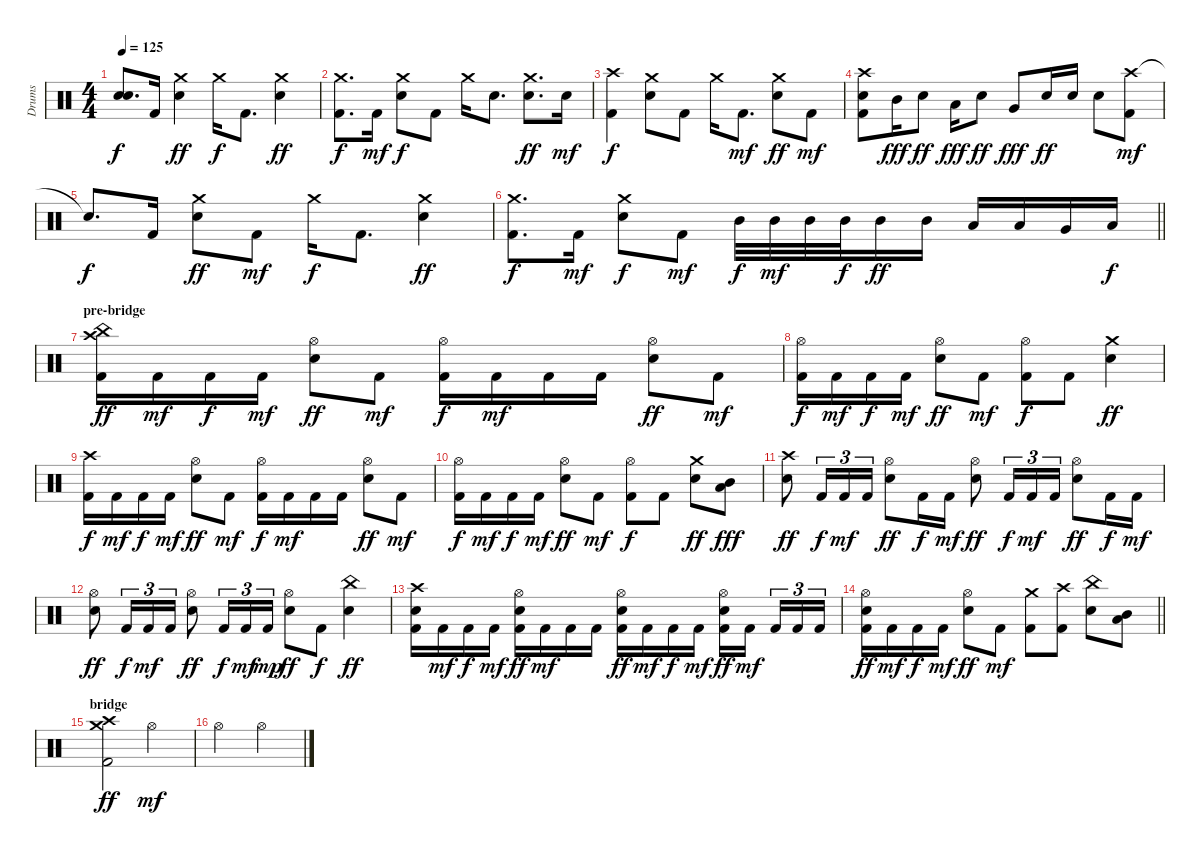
\track ("Drums" "Drums") {instrument percussion}
\staff {score}
\articulation defaults
\ts (4 4)
\tempo 125
\clef neutral
\ks c
("Snare (hit)"{t} "Snare (hit)"{t}).8{d dy f} "Kick (hit) 2".16 ("Crash medium (hit)" "Snare (hit) 2").4{dy ff} "Crash medium (hit)".16{dy f} "Kick (hit) 2".8{d} ("Crash medium (hit)" "Snare (hit) 2").4{dy ff} |
("Crash medium (hit)" "Kick (hit) 2").8{d dy f} "Kick (hit) 2".16{dy mf} ("Crash medium (hit)" "Snare (hit) 2").8{dy f} "Kick (hit) 2".8 "Crash medium (hit)".16 "Snare (hit) 2".8{d} ("Crash medium (hit)" "Snare (hit) 2").8{d dy ff} "Snare (hit) 2".16{dy mf} |
("Crash high (hit)" "Kick (hit) 2").4{dy f} ("Crash medium (hit)" "Snare (hit) 2").8 "Kick (hit) 2".8 "Crash medium (hit)".16 "Kick (hit) 2".8{d dy mf} ("Crash medium (hit)" "Snare (hit) 2").8{dy ff} "Kick (hit) 2".8{dy mf} |
("Crash high (hit)" "Snare (hit) 2" "Kick (hit) 2").8 "Mid Tom (hit)".16{dy fff} "Snare (hit) 2".8{dy ff} "Low Tom (hit)".16{dy fff} "Snare (hit) 2".8{dy ff} "Very Low Tom (hit)".8{dy fff} "Snare (hit) 2".16{dy ff} "Snare (hit) 2".16 "Snare (hit) 2".8 ("Crash high (hit)" "Kick (hit) 2").8{dy mf} |
"Snare (hit)"{t}.8{d dy f} "Kick (hit) 2".16 ("Crash medium (hit)" "Snare (hit) 2").8{dy ff} "Kick (hit) 2".8{dy mf} "Crash medium (hit)".16{dy f} "Kick (hit) 2".8{d} ("Crash medium (hit)" "Snare (hit) 2").4{dy ff} |
\barLineRight lightlight
("Crash medium (hit)" "Kick (hit) 2").8{d dy f} "Kick (hit) 2".16{dy mf} ("Crash medium (hit)" "Snare (hit) 2").8{dy f} "Kick (hit) 2".8{dy mf} "Mid Tom (hit)".32{dy f} "Mid Tom (hit)".32{dy mf} "Mid Tom (hit)".32 "Mid Tom (hit)".32{dy f} "Mid Tom (hit)".16{dy ff} "Mid Tom (hit)".16 "Low Tom (hit)".16 "Low Tom (hit)".16 "Very Low Tom (hit)".16 "Low Tom (hit)".16{dy f} |
\section ("" "pre-bridge")
("China (hit)" "Crash high (hit)" "Kick (hit) 2").16{dy ff} "Kick (hit) 2".16{dy mf} "Kick (hit) 2".16{dy f} "Kick (hit) 2".16{dy mf} ("Hi-Hat (open)" "Snare (hit) 2").8{dy ff} "Kick (hit) 2".8{dy mf} ("Hi-Hat (open)" "Kick (hit) 2").16{dy f} "Kick (hit) 2".16{dy mf} "Kick (hit) 2".16 "Kick (hit) 2".16 ("Hi-Hat (open)" "Snare (hit) 2").8{dy ff} "Kick (hit) 2".8{dy mf} |
("Hi-Hat (open)" "Kick (hit) 2").16{dy f} "Kick (hit) 2".16{dy mf} "Kick (hit) 2".16{dy f} "Kick (hit) 2".16{dy mf} ("Hi-Hat (open)" "Snare (hit) 2").8{dy ff} "Kick (hit) 2".8{dy mf} ("Hi-Hat (open)" "Kick (hit) 2").8{dy f} "Kick (hit) 2".8 ("Crash medium (hit)" "Snare (hit) 2").4{dy ff} |
("Crash high (hit)" "Kick (hit) 2").16{dy f} "Kick (hit) 2".16{dy mf} "Kick (hit) 2".16{dy f} "Kick (hit) 2".16{dy mf} ("Hi-Hat (open)" "Snare (hit) 2").8{dy ff} "Kick (hit) 2".8{dy mf} ("Hi-Hat (open)" "Kick (hit) 2").16{dy f} "Kick (hit) 2".16{dy mf} "Kick (hit) 2".16 "Kick (hit) 2".16 ("Hi-Hat (open)" "Snare (hit) 2").8{dy ff} "Kick (hit) 2".8{dy mf} |
("Hi-Hat (open)" "Kick (hit) 2").16{dy f} "Kick (hit) 2".16{dy mf} "Kick (hit) 2".16{dy f} "Kick (hit) 2".16{dy mf} ("Hi-Hat (open)" "Snare (hit) 2").8{dy ff} "Kick (hit) 2".8{dy mf} ("Hi-Hat (open)" "Kick (hit) 2").8{dy f} "Kick (hit) 2".8 ("Crash medium (hit)" "Snare (hit) 2").8{dy ff} ("Low Tom (hit)" "Mid Tom (hit)").8{dy fff} |
("Crash high (hit)" "Snare (hit) 2").8{dy ff} "Kick (hit) 2".16{tu (3 2) dy f} "Kick (hit) 2".16{tu (3 2) dy mf} "Kick (hit) 2".16{tu (3 2)} ("Hi-Hat (open)" "Snare (hit) 2").8{dy ff} "Kick (hit) 2".16{dy f} "Kick (hit) 2".16{dy mf} ("Hi-Hat (open)" "Snare (hit) 2").8{dy ff} "Kick (hit) 2".16{tu (3 2) dy f} "Kick (hit) 2".16{tu (3 2) dy mf} "Kick (hit) 2".16{tu (3 2)} ("Hi-Hat (open)" "Snare (hit) 2").8{dy ff} "Kick (hit) 2".16{dy f} "Kick (hit) 2".16{dy mf} |
("Hi-Hat (open)" "Snare (hit) 2").8{dy ff} "Kick (hit) 2".16{tu (3 2) dy f} "Kick (hit) 2".16{tu (3 2) dy mf} "Kick (hit) 2".16{tu (3 2)} ("Hi-Hat (open)" "Snare (hit) 2").8{dy ff} "Kick (hit) 2".16{tu (3 2) dy f} "Kick (hit) 2".16{tu (3 2) dy mf} "Kick (hit) 2".16{tu (3 2) dy mp} ("Hi-Hat (open)" "Snare (hit) 2").8{dy ff} "Kick (hit) 2".8{dy f} ("China (hit)" "Snare (hit) 2").4{dy ff} |
("Crash high (hit)" "Snare (hit) 2" "Kick (hit) 2").16 "Kick (hit) 2".16{dy mf} "Kick (hit) 2".16{dy f} "Kick (hit) 2".16{dy mf} ("Hi-Hat (open)" "Snare (hit) 2" "Kick (hit) 2").16{dy ff} "Kick (hit) 2".16{dy mf} "Kick (hit) 2".16 "Kick (hit) 2".16 ("Hi-Hat (open)" "Snare (hit) 2" "Kick (hit) 2").16{dy ff} "Kick (hit) 2".16{dy mf} "Kick (hit) 2".16{dy f} "Kick (hit) 2".16{dy mf} ("Hi-Hat (open)" "Snare (hit) 2" "Kick (hit) 2").16{dy ff} "Kick (hit) 2".16{dy mf beam splitsecondary} "Kick (hit) 2".16{tu (3 2)} "Kick (hit) 2".16{tu (3 2)} "Kick (hit) 2".16{tu (3 2)} |
\barLineRight lightlight
("Hi-Hat (open)" "Snare (hit) 2" "Kick (hit) 2").16{dy ff} "Kick (hit) 2".16{dy mf} "Kick (hit) 2".16{dy f} "Kick (hit) 2".16{dy mf} ("Hi-Hat (open)" "Snare (hit) 2").8{dy ff} "Kick (hit) 2".8{dy mf} ("Crash medium (hit)" "Kick (hit) 2").8 ("Crash high (hit)" "Kick (hit) 2").8 ("China (hit)" "Snare (hit) 2").8 ("Low Tom (hit)" "Mid Tom (hit)").8 |
\section ("" "bridge")
("Crash medium (hit)" "Crash high (hit)" "Kick (hit) 2").2{dy ff} "Hi-Hat (open)".2{dy mf} |
"Hi-Hat (open)".2 "Hi-Hat (open)".2
